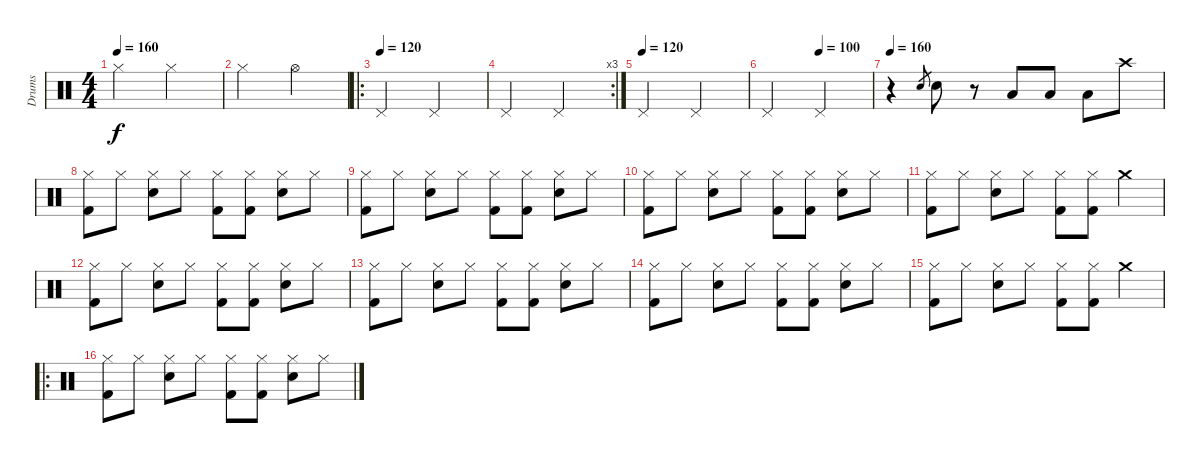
\track ("Drums" "Drums") {instrument percussion}
\staff {score}
\articulation defaults
\ts (4 4)
\tempo 160
\clef neutral
\ks c "Hi-Hat (closed)".2{dy f} "Hi-Hat (closed)".2
|
"Hi-Hat (closed)".2 "Hi-Hat (open)".2 |
\ro
\tempo (120)
"Pedal Hi-Hat (hit)".2 "Pedal Hi-Hat (hit)".2 |
\rc 3 "Pedal Hi-Hat (hit)".2 "Pedal Hi-Hat (hit)".2
|
\tempo (120)
"Pedal Hi-Hat (hit)".2 "Pedal Hi-Hat (hit)".2 |
\tempo (100 0.5)
"Pedal Hi-Hat (hit)".2 "Pedal Hi-Hat (hit)".2 |
\tempo 160
r.4 "Snare (hit) 2".8{gr} "Snare (hit) 2".8 r.8 "Low Tom (hit)".8 "Low Tom (hit)".8 "Low Floor Tom (hit)".8 "Crash high (hit)".8 |
("Kick (hit) 2" "Hi-Hat (closed)").8 "Hi-Hat (closed)".8 ("Snare (hit) 2" "Hi-Hat (closed)").8 "Hi-Hat (closed)".8 ("Kick (hit) 2" "Hi-Hat (closed)").8 ("Kick (hit) 2" "Hi-Hat (closed)").8 ("Snare (hit) 2" "Hi-Hat (closed)").8 "Hi-Hat (closed)".8 |
("Kick (hit) 2" "Hi-Hat (closed)").8 "Hi-Hat (closed)".8 ("Snare (hit) 2" "Hi-Hat (closed)").8 "Hi-Hat (closed)".8 ("Kick (hit) 2" "Hi-Hat (closed)").8 ("Kick (hit) 2" "Hi-Hat (closed)").8 ("Snare (hit) 2" "Hi-Hat (closed)").8 "Hi-Hat (closed)".8 |
("Kick (hit) 2" "Hi-Hat (closed)").8 "Hi-Hat (closed)".8 ("Snare (hit) 2" "Hi-Hat (closed)").8 "Hi-Hat (closed)".8 ("Kick (hit) 2" "Hi-Hat (closed)").8 ("Kick (hit) 2" "Hi-Hat (closed)").8 ("Snare (hit) 2" "Hi-Hat (closed)").8 "Hi-Hat (closed)".8 |
("Kick (hit) 2" "Hi-Hat (closed)").8 "Hi-Hat (closed)".8 ("Snare (hit) 2" "Hi-Hat (closed)").8 "Hi-Hat (closed)".8 ("Kick (hit) 2" "Hi-Hat (closed)").8 ("Kick (hit) 2" "Hi-Hat (closed)").8 "Crash medium (hit)".4 |
("Kick (hit) 2" "Hi-Hat (closed)").8 "Hi-Hat (closed)".8 ("Snare (hit) 2" "Hi-Hat (closed)").8 "Hi-Hat (closed)".8 ("Kick (hit) 2" "Hi-Hat (closed)").8 ("Kick (hit) 2" "Hi-Hat (closed)").8 ("Snare (hit) 2" "Hi-Hat (closed)").8 "Hi-Hat (closed)".8 |
("Kick (hit) 2" "Hi-Hat (closed)").8 "Hi-Hat (closed)".8 ("Snare (hit) 2" "Hi-Hat (closed)").8 "Hi-Hat (closed)".8 ("Kick (hit) 2" "Hi-Hat (closed)").8 ("Kick (hit) 2" "Hi-Hat (closed)").8 ("Snare (hit) 2" "Hi-Hat (closed)").8 "Hi-Hat (closed)".8 |
("Kick (hit) 2" "Hi-Hat (closed)").8 "Hi-Hat (closed)".8 ("Snare (hit) 2" "Hi-Hat (closed)").8 "Hi-Hat (closed)".8 ("Kick (hit) 2" "Hi-Hat (closed)").8 ("Kick (hit) 2" "Hi-Hat (closed)").8 ("Snare (hit) 2" "Hi-Hat (closed)").8 "Hi-Hat (closed)".8 |
("Kick (hit) 2" "Hi-Hat (closed)").8 "Hi-Hat (closed)".8 ("Snare (hit) 2" "Hi-Hat (closed)").8 "Hi-Hat (closed)".8 ("Kick (hit) 2" "Hi-Hat (closed)").8 ("Kick (hit) 2" "Hi-Hat (closed)").8 "Crash medium (hit)".4 |
\ro
("Kick (hit) 2" "Hi-Hat (closed)").8 "Hi-Hat (closed)".8 ("Snare (hit) 2" "Hi-Hat (closed)").8 "Hi-Hat (closed)".8 ("Kick (hit) 2" "Hi-Hat (closed)").8 ("Kick (hit) 2" "Hi-Hat (closed)").8 ("Snare (hit) 2" "Hi-Hat (closed)").8 "Hi-Hat (closed)".8
